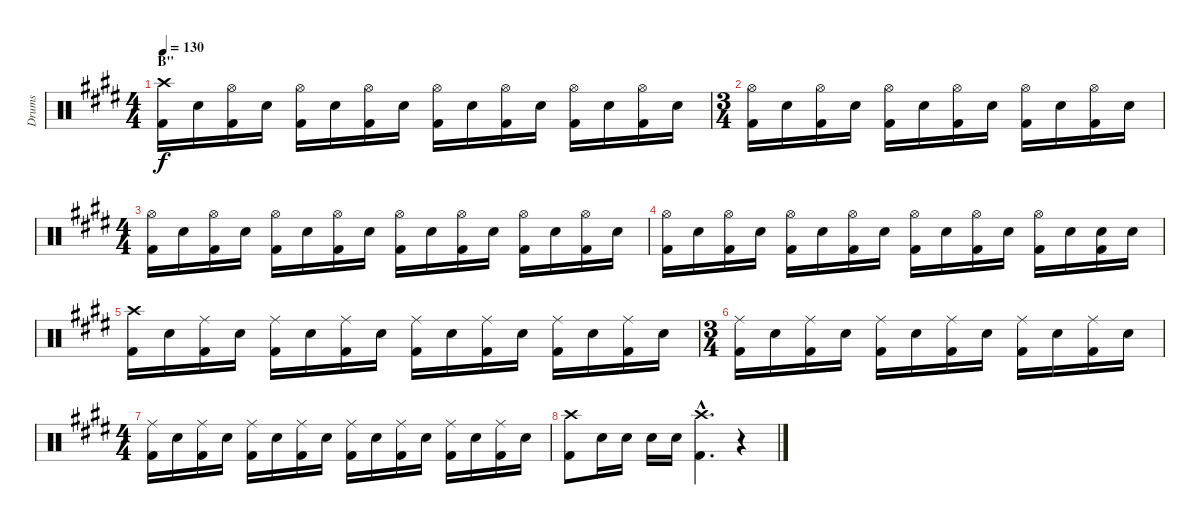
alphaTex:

\track ("Drums" "Drums") {instrument percussion}
\staff {score}
\articulation defaults
\ts (4 4)
\section ("" "B''")
\tempo 130
\clef neutral
\ks e
("Crash high (hit)" "Kick (hit) 2").16{dy f} "Electric Snare (hit)".16 ("Hi-Hat (open)" "Kick (hit) 2").16 "Electric Snare (hit)".16 ("Hi-Hat (open)" "Kick (hit) 2").16 "Electric Snare (hit)".16 ("Hi-Hat (open)" "Kick (hit) 2").16 "Electric Snare (hit)".16 ("Hi-Hat (open)" "Kick (hit) 2").16 "Electric Snare (hit)".16 ("Hi-Hat (open)" "Kick (hit) 2").16 "Electric Snare (hit)".16 ("Hi-Hat (open)" "Kick (hit) 2").16 "Electric Snare (hit)".16 ("Hi-Hat (open)" "Kick (hit) 2").16 "Electric Snare (hit)".16 |
\ts (3 4)
("Hi-Hat (open)" "Kick (hit) 2").16 "Electric Snare (hit)".16 ("Hi-Hat (open)" "Kick (hit) 2").16 "Electric Snare (hit)".16 ("Hi-Hat (open)" "Kick (hit) 2").16 "Electric Snare (hit)".16 ("Hi-Hat (open)" "Kick (hit) 2").16 "Electric Snare (hit)".16 ("Hi-Hat (open)" "Kick (hit) 2").16 "Electric Snare (hit)".16 ("Hi-Hat (open)" "Kick (hit) 2").16 "Electric Snare (hit)".16 |
\ts (4 4)
("Hi-Hat (open)" "Kick (hit) 2").16 "Electric Snare (hit)".16 ("Hi-Hat (open)" "Kick (hit) 2").16 "Electric Snare (hit)".16 ("Hi-Hat (open)" "Kick (hit) 2").16 "Electric Snare (hit)".16 ("Hi-Hat (open)" "Kick (hit) 2").16 "Electric Snare (hit)".16 ("Hi-Hat (open)" "Kick (hit) 2").16 "Electric Snare (hit)".16 ("Hi-Hat (open)" "Kick (hit) 2").16 "Electric Snare (hit)".16 ("Hi-Hat (open)" "Kick (hit) 2").16 "Electric Snare (hit)".16 ("Hi-Hat (open)" "Kick (hit) 2").16 "Electric Snare (hit)".16 |
("Hi-Hat (open)" "Kick (hit) 2").16 "Electric Snare (hit)".16 ("Hi-Hat (open)" "Kick (hit) 2").16 "Electric Snare (hit)".16 ("Hi-Hat (open)" "Kick (hit) 2").16 "Electric Snare (hit)".16 ("Hi-Hat (open)" "Kick (hit) 2").16 "Electric Snare (hit)".16 ("Hi-Hat (open)" "Kick (hit) 2").16 "Electric Snare (hit)".16 ("Hi-Hat (open)" "Kick (hit) 2").16 "Electric Snare (hit)".16 ("Hi-Hat (open)" "Kick (hit) 2").16 "Electric Snare (hit)".16 ("Electric Snare (hit)" "Kick (hit) 2").16 "Electric Snare (hit)".16 |
("Crash high (hit)" "Kick (hit) 2").16 "Electric Snare (hit)".16 ("Ride (middle)" "Kick (hit) 2").16 "Electric Snare (hit)".16 ("Ride (middle)" "Kick (hit) 2").16 "Electric Snare (hit)".16 ("Ride (middle)" "Kick (hit) 2").16 "Electric Snare (hit)".16 ("Ride (middle)" "Kick (hit) 2").16 "Electric Snare (hit)".16 ("Ride (middle)" "Kick (hit) 2").16 "Electric Snare (hit)".16 ("Ride (middle)" "Kick (hit) 2").16 "Electric Snare (hit)".16 ("Ride (middle)" "Kick (hit) 2").16 "Electric Snare (hit)".16 |
\ts (3 4)
("Ride (middle)" "Kick (hit) 2").16 "Electric Snare (hit)".16 ("Ride (middle)" "Kick (hit) 2").16 "Electric Snare (hit)".16 ("Ride (middle)" "Kick (hit) 2").16 "Electric Snare (hit)".16 ("Ride (middle)" "Kick (hit) 2").16 "Electric Snare (hit)".16 ("Ride (middle)" "Kick (hit) 2").16 "Electric Snare (hit)".16 ("Ride (middle)" "Kick (hit) 2").16 "Electric Snare (hit)".16 |
\ts (4 4)
("Ride (middle)" "Kick (hit) 2").16 "Electric Snare (hit)".16 ("Ride (middle)" "Kick (hit) 2").16 "Electric Snare (hit)".16 ("Ride (middle)" "Kick (hit) 2").16 "Electric Snare (hit)".16 ("Ride (middle)" "Kick (hit) 2").16 "Electric Snare (hit)".16 ("Ride (middle)" "Kick (hit) 2").16 "Electric Snare (hit)".16 ("Ride (middle)" "Kick (hit) 2").16 "Electric Snare (hit)".16 ("Ride (middle)" "Kick (hit) 2").16 "Electric Snare (hit)".16 ("Ride (middle)" "Kick (hit) 2").16 "Electric Snare (hit)".16 |
("Crash high (hit)" "Kick (hit) 2").8 "Electric Snare (hit)".16 "Electric Snare (hit)".16 "Electric Snare (hit)".16 "Electric Snare (hit)".16 ("Crash high (hit)"{hac} "Kick (hit) 2"{hac}).4{d} r.4
